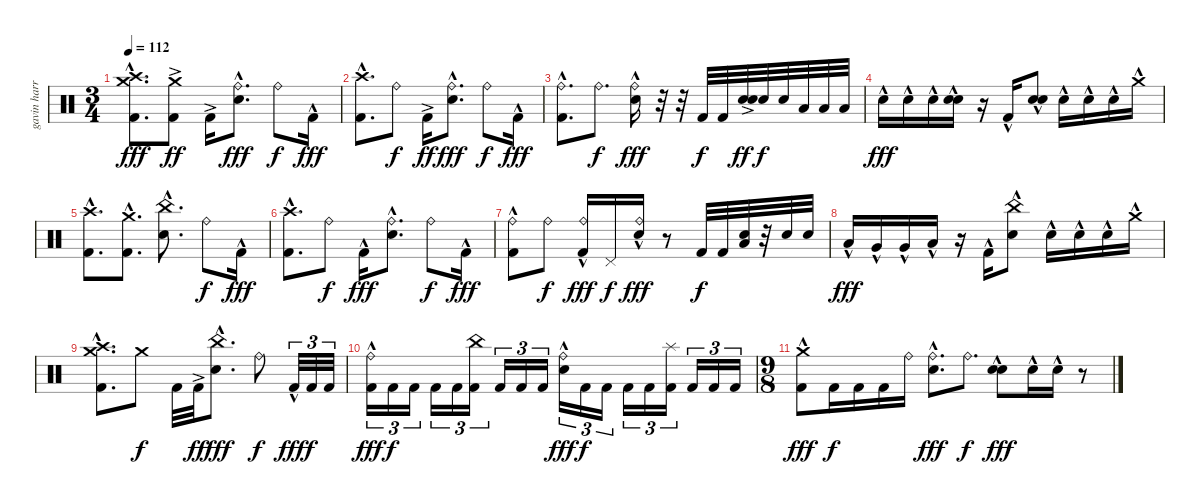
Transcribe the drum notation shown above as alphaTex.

\track ("gavin harrison" "gavin harr") {instrument percussion}
\staff {score}
\articulation defaults
\ts (3 4)
\tempo 112
\clef neutral
\ks c
("Crash high (hit)" "Crash medium (hit)" "Kick (hit) 2"{hac}).8{d dy fff} ("Crash medium (hit)" "Kick (hit) 2"{ac}).8{dy ff} "Kick (hit) 2"{ac}.16 ("Ride (bell)" "Electric Snare (hit)"{hac}).8{d dy fff} "Ride (bell)".8{dy f} "Kick (hit) 2"{hac}.16{dy fff} |
("Crash high (hit)" "Kick (hit) 2"{hac}).8{d} "Ride (bell)".8{dy f} "Kick (hit) 2"{ac}.16{dy ff} ("Ride (bell)" "Electric Snare (hit)"{hac}).8{d dy fff} "Ride (bell)".8{dy f} "Kick (hit) 2"{hac}.16{dy fff} |
("Ride (bell)" "Kick (hit) 2"{hac}).8{d} "Ride (bell)".8{d dy f} ("Ride (bell)" "Electric Snare (hit)"{hac}).16{dy fff} r.32 r.32 "Kick (hit) 2".32{dy f} "Kick (hit) 2".32 ("Electric Snare (hit)"{ac} "Electric Snare (hit)").32{dy ff} "Electric Snare (hit)".32{dy f} "Electric Snare (hit)".32 "Low Floor Tom (hit)".32 "Low Floor Tom (hit)".32 "Low Floor Tom (hit)".32 |
"Electric Snare (hit)"{hac}.16{dy fff} "Electric Snare (hit)"{hac}.16 "Electric Snare (hit)"{hac}.16 ("Electric Snare (hit)" "Electric Snare (hit)"{hac}).16 r.16 "Kick (hit) 2"{hac}.16 ("Electric Snare (hit)"{hac} "Electric Snare (hit)"{hac}).8 "Electric Snare (hit)"{hac}.16 "Electric Snare (hit)"{hac}.16 "Electric Snare (hit)"{hac}.16 "Crash medium (hit)"{hac}.16 |
("Crash high (hit)" "Kick (hit) 2"{hac}).8{d} ("Crash medium (hit)" "Kick (hit) 2"{hac}).8{d} ("China (hit)" "Electric Snare (hit)"{hac}).8{d} "Ride (bell)".8{dy f} "Kick (hit) 2"{hac}.16{dy fff} |
("Crash high (hit)" "Kick (hit) 2"{hac}).8{d} "Ride (bell)".8{dy f} "Kick (hit) 2"{hac}.16{dy fff} ("Ride (bell)" "Electric Snare (hit)"{hac}).8{d} "Ride (bell)".8{dy f} "Kick (hit) 2"{hac}.16{dy fff} |
("Ride (bell)" "Kick (hit) 2"{hac}).8 "Ride (bell)".8{dy f} ("Ride (bell)" "Kick (hit) 2"{hac}).16{dy fff} "Pedal Hi-Hat (hit)".16{dy f} ("Ride (bell)" "Electric Snare (hit)"{hac}).16{dy fff} r.8 "Kick (hit) 2".32{dy f} "Kick (hit) 2".32 ("Low Floor Tom (hit)" "Electric Snare (hit)").32 r.32 "Electric Snare (hit)".32 "Electric Snare (hit)".32 |
"Low Tom (hit)"{hac}.16{dy fff} "Very Low Tom (hit)"{hac}.16 "Very Low Tom (hit)"{hac}.16 "Low Floor Tom (hit)"{hac}.16 r.16 "Kick (hit) 2"{hac}.16 ("China (hit)"{hac} "Electric Snare (hit)"{hac}).8 "Electric Snare (hit)"{hac}.16 "Electric Snare (hit)"{hac}.16 "Electric Snare (hit)"{hac}.16 "Crash medium (hit)"{hac}.16 |
("Crash high (hit)" "Crash medium (hit)" "Kick (hit) 2"{hac}).8{d} "Crash medium (hit)".8{dy f} "Kick (hit) 2".32 "Kick (hit) 2"{ac}.32{dy ff} ("China (hit)" "Electric Snare (hit)"{hac}).8{d dy fff} "Ride (bell)".8{dy f} "Kick (hit) 2"{hac}.32{tu (3 2) dy fff} "Kick (hit) 2".32{tu (3 2) dy f} "Kick (hit) 2".32{tu (3 2)} |
("Ride (bell)" "Kick (hit) 2"{hac}).16{tu (3 2) dy fff} "Kick (hit) 2".16{tu (3 2) dy f} "Kick (hit) 2".16{tu (3 2) beam splitsecondary} "Kick (hit) 2".16{tu (3 2)} "Kick (hit) 2".16{tu (3 2)} ("China (hit)" "Kick (hit) 2").16{tu (3 2)} "Kick (hit) 2".16{tu (3 2)} "Kick (hit) 2".16{tu (3 2)} "Kick (hit) 2".16{tu (3 2) beam splitsecondary} ("Ride (bell)" "Electric Snare (hit)"{hac}).16{tu (3 2) dy fff} "Kick (hit) 2".16{tu (3 2) dy f} "Kick (hit) 2".16{tu (3 2)} "Kick (hit) 2".16{tu (3 2)} "Kick (hit) 2".16{tu (3 2)} ("Splash (hit)" "Kick (hit) 2").16{tu (3 2) beam splitsecondary} "Kick (hit) 2".16{tu (3 2)} "Kick (hit) 2".16{tu (3 2)} "Kick (hit) 2".16{tu (3 2)} |
\ts (9 8)
("Crash medium (hit)" "Kick (hit) 2"{hac}).8{dy fff} "Kick (hit) 2".16{dy f} "Kick (hit) 2".16 "Kick (hit) 2".16 "Ride (bell)".16 ("Ride (bell)" "Electric Snare (hit)"{hac}).8{d dy fff} "Ride (bell)".8{d dy f} ("Electric Snare (hit)"{hac} "Electric Snare (hit)"{hac}).8{dy fff} "Electric Snare (hit)"{hac}.16 "Electric Snare (hit)"{hac}.16 r.8
